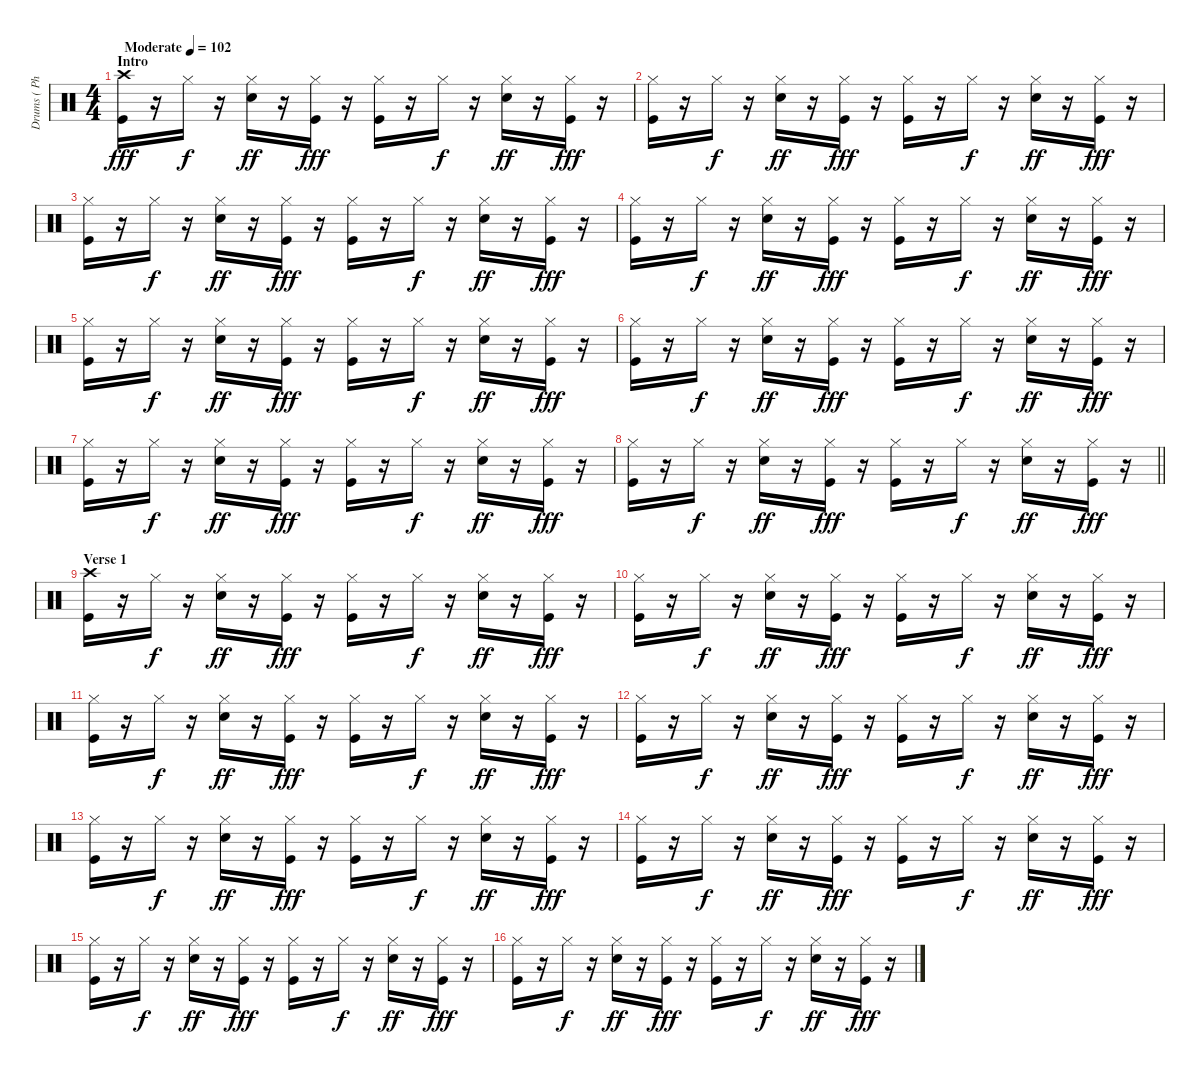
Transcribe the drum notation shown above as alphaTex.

\track ("Drums ( Phillip Selway )" "Drums ( Ph") {instrument percussion}
\staff {score}
\articulation defaults
\ts (4 4)
\section ("" "Intro")
\tempo (102 "Moderate")
\clef neutral
\ks c
("Crash high (hit)" "Kick (hit)").16{dy fff} r.16 "Hi-Hat (closed)".16{dy f} r.16 ("Hi-Hat (closed)" "Electric Snare (hit)").16{dy ff} r.16 ("Hi-Hat (closed)" "Kick (hit)").16{dy fff} r.16 ("Hi-Hat (closed)" "Kick (hit)").16 r.16 "Hi-Hat (closed)".16{dy f} r.16 ("Hi-Hat (closed)" "Electric Snare (hit)").16{dy ff} r.16 ("Hi-Hat (closed)" "Kick (hit)").16{dy fff} r.16 |
("Hi-Hat (closed)" "Kick (hit)").16 r.16 "Hi-Hat (closed)".16{dy f} r.16 ("Hi-Hat (closed)" "Electric Snare (hit)").16{dy ff} r.16 ("Hi-Hat (closed)" "Kick (hit)").16{dy fff} r.16 ("Hi-Hat (closed)" "Kick (hit)").16 r.16 "Hi-Hat (closed)".16{dy f} r.16 ("Hi-Hat (closed)" "Electric Snare (hit)").16{dy ff} r.16 ("Hi-Hat (closed)" "Kick (hit)").16{dy fff} r.16 |
("Hi-Hat (closed)" "Kick (hit)").16 r.16 "Hi-Hat (closed)".16{dy f} r.16 ("Hi-Hat (closed)" "Electric Snare (hit)").16{dy ff} r.16 ("Hi-Hat (closed)" "Kick (hit)").16{dy fff} r.16 ("Hi-Hat (closed)" "Kick (hit)").16 r.16 "Hi-Hat (closed)".16{dy f} r.16 ("Hi-Hat (closed)" "Electric Snare (hit)").16{dy ff} r.16 ("Hi-Hat (closed)" "Kick (hit)").16{dy fff} r.16 |
("Hi-Hat (closed)" "Kick (hit)").16 r.16 "Hi-Hat (closed)".16{dy f} r.16 ("Hi-Hat (closed)" "Electric Snare (hit)").16{dy ff} r.16 ("Hi-Hat (closed)" "Kick (hit)").16{dy fff} r.16 ("Hi-Hat (closed)" "Kick (hit)").16 r.16 "Hi-Hat (closed)".16{dy f} r.16 ("Hi-Hat (closed)" "Electric Snare (hit)").16{dy ff} r.16 ("Hi-Hat (closed)" "Kick (hit)").16{dy fff} r.16 |
("Hi-Hat (closed)" "Kick (hit)").16 r.16 "Hi-Hat (closed)".16{dy f} r.16 ("Hi-Hat (closed)" "Electric Snare (hit)").16{dy ff} r.16 ("Hi-Hat (closed)" "Kick (hit)").16{dy fff} r.16 ("Hi-Hat (closed)" "Kick (hit)").16 r.16 "Hi-Hat (closed)".16{dy f} r.16 ("Hi-Hat (closed)" "Electric Snare (hit)").16{dy ff} r.16 ("Hi-Hat (closed)" "Kick (hit)").16{dy fff} r.16 |
("Hi-Hat (closed)" "Kick (hit)").16 r.16 "Hi-Hat (closed)".16{dy f} r.16 ("Hi-Hat (closed)" "Electric Snare (hit)").16{dy ff} r.16 ("Hi-Hat (closed)" "Kick (hit)").16{dy fff} r.16 ("Hi-Hat (closed)" "Kick (hit)").16 r.16 "Hi-Hat (closed)".16{dy f} r.16 ("Hi-Hat (closed)" "Electric Snare (hit)").16{dy ff} r.16 ("Hi-Hat (closed)" "Kick (hit)").16{dy fff} r.16 |
("Hi-Hat (closed)" "Kick (hit)").16 r.16 "Hi-Hat (closed)".16{dy f} r.16 ("Hi-Hat (closed)" "Electric Snare (hit)").16{dy ff} r.16 ("Hi-Hat (closed)" "Kick (hit)").16{dy fff} r.16 ("Hi-Hat (closed)" "Kick (hit)").16 r.16 "Hi-Hat (closed)".16{dy f} r.16 ("Hi-Hat (closed)" "Electric Snare (hit)").16{dy ff} r.16 ("Hi-Hat (closed)" "Kick (hit)").16{dy fff} r.16 |
\barLineRight lightlight
("Hi-Hat (closed)" "Kick (hit)").16 r.16 "Hi-Hat (closed)".16{dy f} r.16 ("Hi-Hat (closed)" "Electric Snare (hit)").16{dy ff} r.16 ("Hi-Hat (closed)" "Kick (hit)").16{dy fff} r.16 ("Hi-Hat (closed)" "Kick (hit)").16 r.16 "Hi-Hat (closed)".16{dy f} r.16 ("Hi-Hat (closed)" "Electric Snare (hit)").16{dy ff} r.16 ("Hi-Hat (closed)" "Kick (hit)").16{dy fff} r.16 |
\section ("" "Verse 1")
("Crash high (hit)" "Kick (hit)").16 r.16 "Hi-Hat (closed)".16{dy f} r.16 ("Hi-Hat (closed)" "Electric Snare (hit)").16{dy ff} r.16 ("Hi-Hat (closed)" "Kick (hit)").16{dy fff} r.16 ("Hi-Hat (closed)" "Kick (hit)").16 r.16 "Hi-Hat (closed)".16{dy f} r.16 ("Hi-Hat (closed)" "Electric Snare (hit)").16{dy ff} r.16 ("Hi-Hat (closed)" "Kick (hit)").16{dy fff} r.16 |
("Hi-Hat (closed)" "Kick (hit)").16 r.16 "Hi-Hat (closed)".16{dy f} r.16 ("Hi-Hat (closed)" "Electric Snare (hit)").16{dy ff} r.16 ("Hi-Hat (closed)" "Kick (hit)").16{dy fff} r.16 ("Hi-Hat (closed)" "Kick (hit)").16 r.16 "Hi-Hat (closed)".16{dy f} r.16 ("Hi-Hat (closed)" "Electric Snare (hit)").16{dy ff} r.16 ("Hi-Hat (closed)" "Kick (hit)").16{dy fff} r.16 |
("Hi-Hat (closed)" "Kick (hit)").16 r.16 "Hi-Hat (closed)".16{dy f} r.16 ("Hi-Hat (closed)" "Electric Snare (hit)").16{dy ff} r.16 ("Hi-Hat (closed)" "Kick (hit)").16{dy fff} r.16 ("Hi-Hat (closed)" "Kick (hit)").16 r.16 "Hi-Hat (closed)".16{dy f} r.16 ("Hi-Hat (closed)" "Electric Snare (hit)").16{dy ff} r.16 ("Hi-Hat (closed)" "Kick (hit)").16{dy fff} r.16 |
("Hi-Hat (closed)" "Kick (hit)").16 r.16 "Hi-Hat (closed)".16{dy f} r.16 ("Hi-Hat (closed)" "Electric Snare (hit)").16{dy ff} r.16 ("Hi-Hat (closed)" "Kick (hit)").16{dy fff} r.16 ("Hi-Hat (closed)" "Kick (hit)").16 r.16 "Hi-Hat (closed)".16{dy f} r.16 ("Hi-Hat (closed)" "Electric Snare (hit)").16{dy ff} r.16 ("Hi-Hat (closed)" "Kick (hit)").16{dy fff} r.16 |
("Hi-Hat (closed)" "Kick (hit)").16 r.16 "Hi-Hat (closed)".16{dy f} r.16 ("Hi-Hat (closed)" "Electric Snare (hit)").16{dy ff} r.16 ("Hi-Hat (closed)" "Kick (hit)").16{dy fff} r.16 ("Hi-Hat (closed)" "Kick (hit)").16 r.16 "Hi-Hat (closed)".16{dy f} r.16 ("Hi-Hat (closed)" "Electric Snare (hit)").16{dy ff} r.16 ("Hi-Hat (closed)" "Kick (hit)").16{dy fff} r.16 |
("Hi-Hat (closed)" "Kick (hit)").16 r.16 "Hi-Hat (closed)".16{dy f} r.16 ("Hi-Hat (closed)" "Electric Snare (hit)").16{dy ff} r.16 ("Hi-Hat (closed)" "Kick (hit)").16{dy fff} r.16 ("Hi-Hat (closed)" "Kick (hit)").16 r.16 "Hi-Hat (closed)".16{dy f} r.16 ("Hi-Hat (closed)" "Electric Snare (hit)").16{dy ff} r.16 ("Hi-Hat (closed)" "Kick (hit)").16{dy fff} r.16 |
("Hi-Hat (closed)" "Kick (hit)").16 r.16 "Hi-Hat (closed)".16{dy f} r.16 ("Hi-Hat (closed)" "Electric Snare (hit)").16{dy ff} r.16 ("Hi-Hat (closed)" "Kick (hit)").16{dy fff} r.16 ("Hi-Hat (closed)" "Kick (hit)").16 r.16 "Hi-Hat (closed)".16{dy f} r.16 ("Hi-Hat (closed)" "Electric Snare (hit)").16{dy ff} r.16 ("Hi-Hat (closed)" "Kick (hit)").16{dy fff} r.16 |
("Hi-Hat (closed)" "Kick (hit)").16 r.16 "Hi-Hat (closed)".16{dy f} r.16 ("Hi-Hat (closed)" "Electric Snare (hit)").16{dy ff} r.16 ("Hi-Hat (closed)" "Kick (hit)").16{dy fff} r.16 ("Hi-Hat (closed)" "Kick (hit)").16 r.16 "Hi-Hat (closed)".16{dy f} r.16 ("Hi-Hat (closed)" "Electric Snare (hit)").16{dy ff} r.16 ("Hi-Hat (closed)" "Kick (hit)").16{dy fff} r.16
